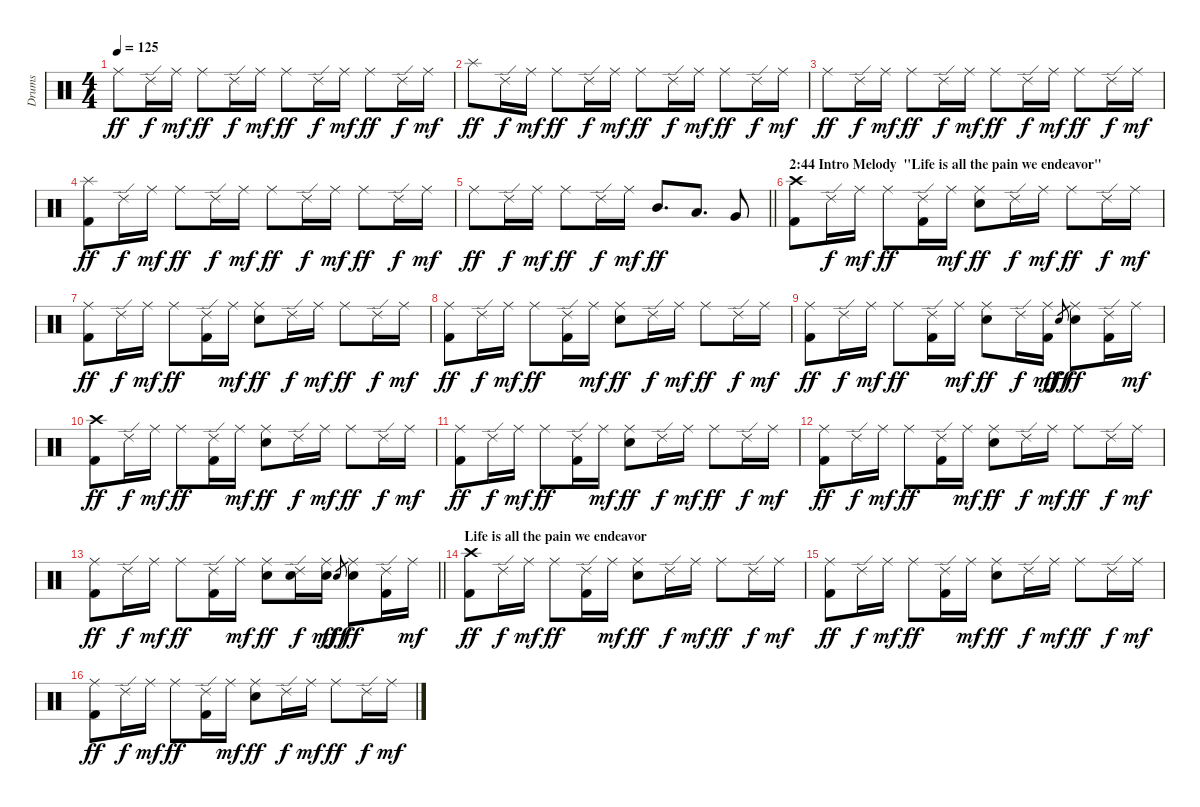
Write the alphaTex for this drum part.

\track ("Drums" "Drums") {instrument percussion}
\staff {score}
\articulation defaults
\ts (4 4)
\tempo 125
\clef neutral
\ks c "Ride (middle)".8{dy ff} "Ride (edge) 2".16{dy f} "Ride (middle)".16{dy mf} "Ride (middle)".8{dy ff} "Ride (edge) 2".16{dy f} "Ride (middle)".16{dy mf} "Ride (middle)".8{dy ff} "Ride (edge) 2".16{dy f} "Ride (middle)".16{dy mf} "Ride (middle)".8{dy ff} "Ride (edge) 2".16{dy f} "Ride (middle)".16{dy mf}
|
"Splash (hit)".8{dy ff} "Ride (edge) 2".16{dy f} "Ride (middle)".16{dy mf} "Ride (middle)".8{dy ff} "Ride (edge) 2".16{dy f} "Ride (middle)".16{dy mf} "Ride (middle)".8{dy ff} "Ride (edge) 2".16{dy f} "Ride (middle)".16{dy mf} "Ride (middle)".8{dy ff} "Ride (edge) 2".16{dy f} "Ride (middle)".16{dy mf} |
"Ride (middle)".8{dy ff} "Ride (edge) 2".16{dy f} "Ride (middle)".16{dy mf} "Ride (middle)".8{dy ff} "Ride (edge) 2".16{dy f} "Ride (middle)".16{dy mf} "Ride (middle)".8{dy ff} "Ride (edge) 2".16{dy f} "Ride (middle)".16{dy mf} "Ride (middle)".8{dy ff} "Ride (edge) 2".16{dy f} "Ride (middle)".16{dy mf} |
("Kick (hit) 2" "Splash (hit)").8{dy ff} "Ride (edge) 2".16{dy f} "Ride (middle)".16{dy mf} "Ride (middle)".8{dy ff} "Ride (edge) 2".16{dy f} "Ride (middle)".16{dy mf} "Ride (middle)".8{dy ff} "Ride (edge) 2".16{dy f} "Ride (middle)".16{dy mf} "Ride (middle)".8{dy ff} "Ride (edge) 2".16{dy f} "Ride (middle)".16{dy mf} |
\barLineRight lightlight "Ride (middle)".8{dy ff} "Ride (edge) 2".16{dy f} "Ride (middle)".16{dy mf} "Ride (middle)".8{dy ff} "Ride (edge) 2".16{dy f} "Ride (middle)".16{dy mf} "Mid Tom (hit)".8{d dy ff} "Low Tom (hit)".8{d} "Very Low Tom (hit)".8
|
\section ("" "2:44 Intro Melody  \"Life is all the pain we endeavor\"")
("Kick (hit) 2" "Crash high (hit)").8 "Ride (edge) 2".16{dy f} "Ride (middle)".16{dy mf} "Ride (middle)".8{dy ff} ("Kick (hit) 2" "Ride (edge) 2").16 "Ride (middle)".16{dy mf} ("Electric Snare (hit)" "Ride (middle)").8{dy ff} "Ride (edge) 2".16{dy f} "Ride (middle)".16{dy mf} "Ride (middle)".8{dy ff} "Ride (edge) 2".16{dy f} "Ride (middle)".16{dy mf} |
("Kick (hit) 2" "Ride (middle)").8{dy ff} "Ride (edge) 2".16{dy f} "Ride (middle)".16{dy mf} "Ride (middle)".8{dy ff} ("Kick (hit) 2" "Ride (edge) 2").16 "Ride (middle)".16{dy mf} ("Electric Snare (hit)" "Ride (middle)").8{dy ff} "Ride (edge) 2".16{dy f} "Ride (middle)".16{dy mf} "Ride (middle)".8{dy ff} "Ride (edge) 2".16{dy f} "Ride (middle)".16{dy mf} |
("Kick (hit) 2" "Ride (middle)").8{dy ff} "Ride (edge) 2".16{dy f} "Ride (middle)".16{dy mf} "Ride (middle)".8{dy ff} ("Kick (hit) 2" "Ride (edge) 2").16 "Ride (middle)".16{dy mf} ("Electric Snare (hit)" "Ride (middle)").8{dy ff} "Ride (edge) 2".16{dy f} "Ride (middle)".16{dy mf} "Ride (middle)".8{dy ff} "Ride (edge) 2".16{dy f} "Ride (middle)".16{dy mf} |
("Kick (hit) 2" "Ride (middle)").8{dy ff} "Ride (edge) 2".16{dy f} "Ride (middle)".16{dy mf} "Ride (middle)".8{dy ff} ("Kick (hit) 2" "Ride (edge) 2").16 "Ride (middle)".16{dy mf} ("Electric Snare (hit)" "Ride (middle)").8{dy ff} "Ride (edge) 2".16{dy f} ("Kick (hit) 2" "Ride (middle)").16{dy mf} "Electric Snare (hit)".8{gr dy fff} ("Electric Snare (hit)" "Ride (middle)").8{dy ff} ("Kick (hit) 2" "Ride (edge) 2").16 "Ride (middle)".16{dy mf} |
("Kick (hit) 2" "Crash high (hit)").8{dy ff} "Ride (edge) 2".16{dy f} "Ride (middle)".16{dy mf} "Ride (middle)".8{dy ff} ("Kick (hit) 2" "Ride (edge) 2").16 "Ride (middle)".16{dy mf} ("Electric Snare (hit)" "Ride (middle)").8{dy ff} "Ride (edge) 2".16{dy f} "Ride (middle)".16{dy mf} "Ride (middle)".8{dy ff} "Ride (edge) 2".16{dy f} "Ride (middle)".16{dy mf} |
("Kick (hit) 2" "Ride (middle)").8{dy ff} "Ride (edge) 2".16{dy f} "Ride (middle)".16{dy mf} "Ride (middle)".8{dy ff} ("Kick (hit) 2" "Ride (edge) 2").16 "Ride (middle)".16{dy mf} ("Electric Snare (hit)" "Ride (middle)").8{dy ff} "Ride (edge) 2".16{dy f} "Ride (middle)".16{dy mf} "Ride (middle)".8{dy ff} "Ride (edge) 2".16{dy f} "Ride (middle)".16{dy mf} |
("Kick (hit) 2" "Ride (middle)").8{dy ff} "Ride (edge) 2".16{dy f} "Ride (middle)".16{dy mf} "Ride (middle)".8{dy ff} ("Kick (hit) 2" "Ride (edge) 2").16 "Ride (middle)".16{dy mf} ("Electric Snare (hit)" "Ride (middle)").8{dy ff} "Ride (edge) 2".16{dy f} "Ride (middle)".16{dy mf} "Ride (middle)".8{dy ff} "Ride (edge) 2".16{dy f} "Ride (middle)".16{dy mf} |
\barLineRight lightlight
("Kick (hit) 2" "Ride (middle)").8{dy ff} "Ride (edge) 2".16{dy f} "Ride (middle)".16{dy mf} "Ride (middle)".8{dy ff} ("Kick (hit) 2" "Ride (edge) 2").16 "Ride (middle)".16{dy mf} ("Electric Snare (hit)" "Ride (middle)").8{dy ff} ("Electric Snare (hit)" "Ride (edge) 2").16{dy f} ("Electric Snare (hit)" "Ride (middle)").16{dy mf} "Electric Snare (hit)".8{gr dy fff} ("Electric Snare (hit)" "Ride (middle)").8{dy ff} ("Kick (hit) 2" "Ride (edge) 2").16 "Ride (middle)".16{dy mf} |
\section ("" "Life is all the pain we endeavor")
("Kick (hit) 2" "Crash high (hit)").8{dy ff} "Ride (edge) 2".16{dy f} "Ride (middle)".16{dy mf} "Ride (middle)".8{dy ff} ("Kick (hit) 2" "Ride (edge) 2").16 "Ride (middle)".16{dy mf} ("Electric Snare (hit)" "Ride (middle)").8{dy ff} "Ride (edge) 2".16{dy f} "Ride (middle)".16{dy mf} "Ride (middle)".8{dy ff} "Ride (edge) 2".16{dy f} "Ride (middle)".16{dy mf} |
("Kick (hit) 2" "Ride (middle)").8{dy ff} "Ride (edge) 2".16{dy f} "Ride (middle)".16{dy mf} "Ride (middle)".8{dy ff} ("Kick (hit) 2" "Ride (edge) 2").16 "Ride (middle)".16{dy mf} ("Electric Snare (hit)" "Ride (middle)").8{dy ff} "Ride (edge) 2".16{dy f} "Ride (middle)".16{dy mf} "Ride (middle)".8{dy ff} "Ride (edge) 2".16{dy f} "Ride (middle)".16{dy mf} |
("Kick (hit) 2" "Ride (middle)").8{dy ff} "Ride (edge) 2".16{dy f} "Ride (middle)".16{dy mf} "Ride (middle)".8{dy ff} ("Kick (hit) 2" "Ride (edge) 2").16 "Ride (middle)".16{dy mf} ("Electric Snare (hit)" "Ride (middle)").8{dy ff} "Ride (edge) 2".16{dy f} "Ride (middle)".16{dy mf} "Ride (middle)".8{dy ff} "Ride (edge) 2".16{dy f} "Ride (middle)".16{dy mf}
